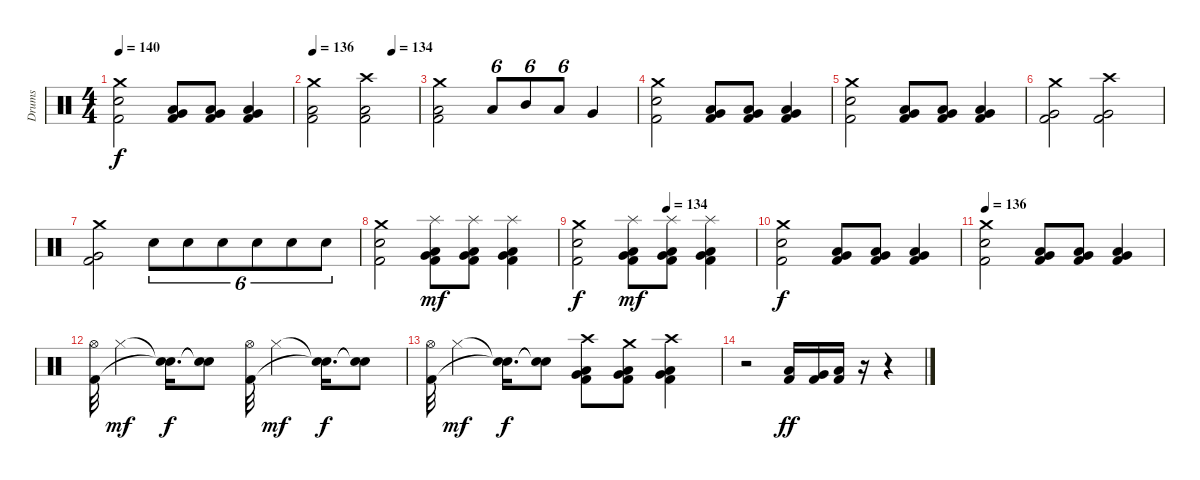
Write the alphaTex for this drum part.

\track ("Drums" "Drums") {instrument percussion}
\staff {score}
\articulation defaults
\ts (4 4)
\tempo 140
\clef neutral
\ks c
("Crash medium (hit)" "Snare (hit) 2" "Kick (hit) 2").2{dy f} ("Low Tom (hit)" "Very Low Tom (hit)" "Kick (hit) 2").8 ("Low Tom (hit)" "Very Low Tom (hit)" "Kick (hit) 2").8 ("Low Tom (hit)" "Very Low Tom (hit)" "Kick (hit) 2").4 |
\tempo 136
\tempo (134 0.7494791666666667)
("Crash medium (hit)" "Low Tom (hit)" "Kick (hit) 2").2 ("Crash high (hit)" "Low Tom (hit)" "Kick (hit) 2").2 |
("Crash medium (hit)" "Low Tom (hit)" "Kick (hit) 2").2 "Low Tom (hit)".8{tu (6 4)} "Mid Tom (hit)".8{tu (6 4)} "Low Tom (hit)".8{tu (6 4)} "Very Low Tom (hit)".4 |
("Crash medium (hit)" "Snare (hit) 2" "Kick (hit) 2").2 ("Low Tom (hit)" "Very Low Tom (hit)" "Kick (hit) 2").8 ("Low Tom (hit)" "Very Low Tom (hit)" "Kick (hit) 2").8 ("Low Tom (hit)" "Very Low Tom (hit)" "Kick (hit) 2").4 |
("Crash medium (hit)" "Snare (hit) 2" "Kick (hit) 2").2 ("Low Tom (hit)" "Very Low Tom (hit)" "Kick (hit) 2").8 ("Low Tom (hit)" "Very Low Tom (hit)" "Kick (hit) 2").8 ("Low Tom (hit)" "Very Low Tom (hit)" "Kick (hit) 2").4 |
("Crash medium (hit)" "Very Low Tom (hit)" "Kick (hit) 2").2 ("Crash high (hit)" "Very Low Tom (hit)" "Kick (hit) 2").2 |
("Crash medium (hit)" "Very Low Tom (hit)" "Kick (hit) 2").2 "Snare (hit) 2".8{tu (6 4)} "Snare (hit) 2".8{tu (6 4)} "Snare (hit) 2".8{tu (6 4)} "Snare (hit) 2".8{tu (6 4)} "Snare (hit) 2".8{tu (6 4)} "Snare (hit) 2".8{tu (6 4)} |
("Crash medium (hit)" "Snare (hit) 2" "Kick (hit) 2").2 ("Splash (hit)" "Low Tom (hit)" "Very Low Tom (hit)" "Kick (hit) 2").8{dy mf} ("Splash (hit)" "Low Tom (hit)" "Very Low Tom (hit)" "Kick (hit) 2").8 ("Splash (hit)" "Low Tom (hit)" "Very Low Tom (hit)" "Kick (hit) 2").4 |
\tempo (134 0.49973958333333335)
("Crash medium (hit)" "Snare (hit) 2" "Kick (hit) 2").2{dy f} ("Splash (hit)" "Low Tom (hit)" "Very Low Tom (hit)" "Kick (hit) 2").8{dy mf} ("Splash (hit)" "Low Tom (hit)" "Very Low Tom (hit)" "Kick (hit) 2").8 ("Splash (hit)" "Low Tom (hit)" "Very Low Tom (hit)" "Kick (hit) 2").4 |
("Crash medium (hit)" "Snare (hit) 2" "Kick (hit) 2").2{dy f} ("Low Tom (hit)" "Very Low Tom (hit)" "Kick (hit) 2").8 ("Low Tom (hit)" "Very Low Tom (hit)" "Kick (hit) 2").8 ("Low Tom (hit)" "Very Low Tom (hit)" "Kick (hit) 2").4 |
\tempo 136
("Crash medium (hit)" "Snare (hit) 2" "Kick (hit) 2").2 ("Low Tom (hit)" "Very Low Tom (hit)" "Kick (hit) 2").8 ("Low Tom (hit)" "Very Low Tom (hit)" "Kick (hit) 2").8 ("Low Tom (hit)" "Very Low Tom (hit)" "Kick (hit) 2").4 |
("Hi-Hat (open)" "Kick (hit) 2").32 "Hi-Hat (closed)".4{dy mf} ("Snare (hit)"{t} "Snare (hit)"{t}).16{d dy f} ("Snare (hit)"{t} "Snare (hit)"{t}).8 ("Hi-Hat (open)" "Kick (hit) 2").32 "Hi-Hat (closed)".4{dy mf} ("Snare (hit)"{t} "Snare (hit)"{t}).16{d dy f} ("Snare (hit)"{t} "Snare (hit)"{t}).8 |
("Hi-Hat (open)" "Kick (hit) 2").32 "Hi-Hat (closed)".4{dy mf} ("Snare (hit)"{t} "Snare (hit)"{t}).16{d dy f} ("Snare (hit)"{t} "Snare (hit)"{t}).8 ("Crash high (hit)" "Low Tom (hit)" "Very Low Tom (hit)" "Kick (hit) 2").8 ("Crash medium (hit)" "Low Tom (hit)" "Very Low Tom (hit)" "Kick (hit) 2").8 ("Crash high (hit)" "Low Tom (hit)" "Very Low Tom (hit)" "Kick (hit) 2").4 |
r.2 ("Low Tom (hit)" "Kick (hit) 2").16{dy ff} ("Very Low Tom (hit)" "Kick (hit) 2").16 ("Low Tom (hit)" "Kick (hit) 2").16 r.16 r.4
